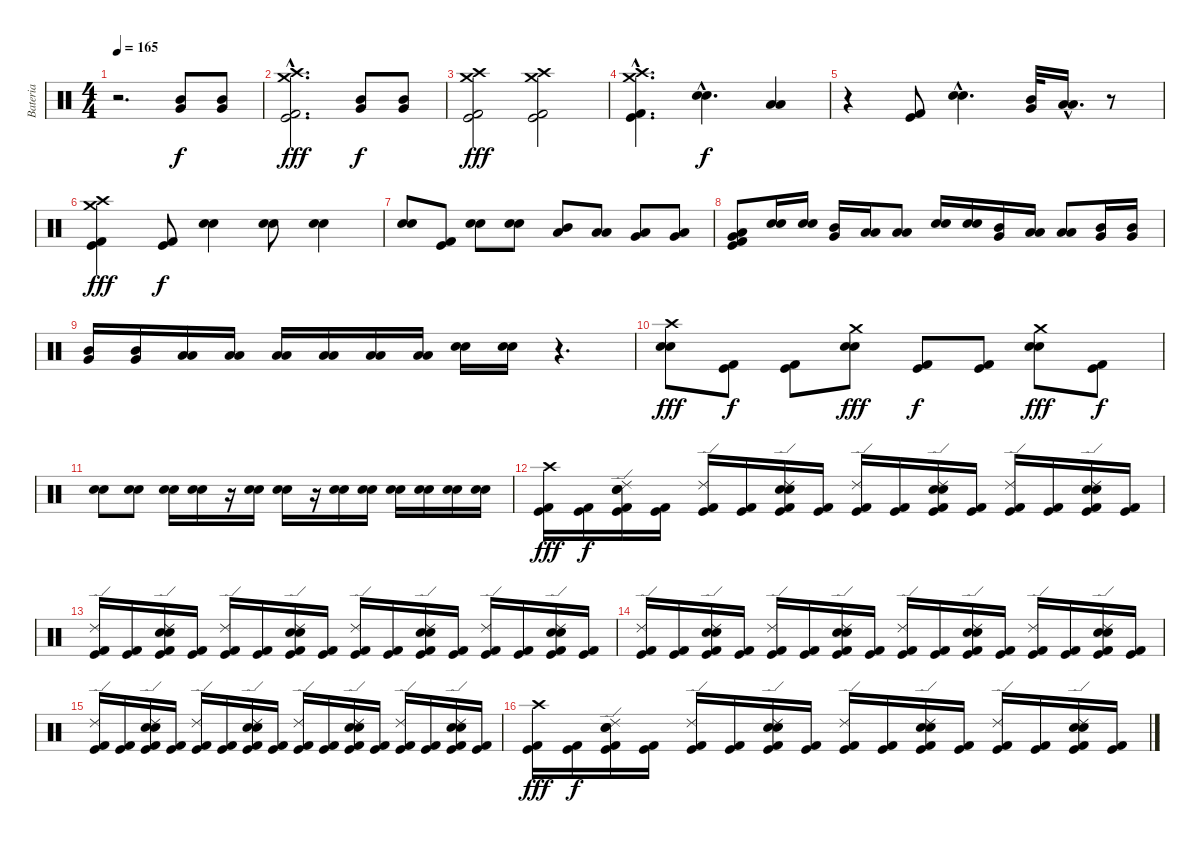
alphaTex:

\track ("Bateria" "Bateria") {instrument percussion}
\staff {score}
\articulation defaults
\ts (4 4)
\tempo 165
\clef neutral
\ks c
r.2{d dy fff} ("Mid Tom (hit)" "Very Low Tom (hit)").8{dy f} ("Mid Tom (hit)" "Very Low Tom (hit)").8 |
("Crash high (hit)"{hac} "Crash medium (hit)"{hac} "Kick (hit) 2"{hac} "Kick (hit)"{hac}).2{d dy fff} ("Mid Tom (hit)" "Very Low Tom (hit)").8{dy f} ("Mid Tom (hit)" "Very Low Tom (hit)").8 |
("Crash high (hit)" "Crash medium (hit)" "Kick (hit) 2" "Kick (hit)").2{dy fff} ("Crash high (hit)" "Crash medium (hit)" "Kick (hit) 2" "Kick (hit)").2 |
("Crash high (hit)"{hac} "Crash medium (hit)"{hac} "Kick (hit) 2"{hac} "Kick (hit)"{hac}).4{d} ("Electric Snare (hit)"{hac} "Snare (hit) 2"{hac}).4{d dy f} ("Low Tom (hit)" "Low Floor Tom (hit)").4 |
r.4 ("Kick (hit) 2" "Kick (hit)").8 ("Snare (hit) 2"{hac} "Electric Snare (hit)"{hac}).4{d} ("Mid Tom (hit)" "Very Low Tom (hit)").32 ("Low Tom (hit)"{hac} "Low Floor Tom (hit)"{hac}).16{d} r.8 |
("Crash high (hit)" "Crash medium (hit)" "Kick (hit) 2" "Kick (hit)").4{dy fff} ("Kick (hit) 2" "Kick (hit)").8{dy f} ("Electric Snare (hit)" "Snare (hit) 2").4 ("Electric Snare (hit)" "Snare (hit) 2").8 ("Electric Snare (hit)" "Snare (hit) 2").4 |
("Electric Snare (hit)" "Snare (hit) 2").8 ("Kick (hit)" "Kick (hit) 2").8 ("Electric Snare (hit)" "Snare (hit) 2").8 ("Electric Snare (hit)" "Snare (hit) 2").8 ("Mid Tom (hit)" "Low Tom (hit)").8 ("Low Tom (hit)" "Low Floor Tom (hit)").8 ("Very Low Tom (hit)" "Low Floor Tom (hit)").8 ("Very Low Tom (hit)" "Low Floor Tom (hit)").8 |
("Low Tom (hit)" "Very Low Tom (hit)" "Kick (hit) 2" "Kick (hit)").8 ("Electric Snare (hit)" "Snare (hit) 2").16 ("Electric Snare (hit)" "Snare (hit) 2").16 ("Mid Tom (hit)" "Very Low Tom (hit)").16 ("Low Tom (hit)" "Low Floor Tom (hit)").16 ("Low Tom (hit)" "Low Floor Tom (hit)").8 ("Electric Snare (hit)" "Snare (hit) 2").16 ("Electric Snare (hit)" "Snare (hit) 2").16 ("Mid Tom (hit)" "Very Low Tom (hit)").16 ("Low Tom (hit)" "Low Floor Tom (hit)").16 ("Low Tom (hit)" "Low Floor Tom (hit)").8 ("Mid Tom (hit)" "Very Low Tom (hit)").16 ("Mid Tom (hit)" "Very Low Tom (hit)").16 |
("Mid Tom (hit)" "Very Low Tom (hit)").16 ("Mid Tom (hit)" "Very Low Tom (hit)").16 ("Low Tom (hit)" "Low Floor Tom (hit)").16 ("Low Tom (hit)" "Low Floor Tom (hit)").16 ("Low Tom (hit)" "Low Floor Tom (hit)").16 ("Low Tom (hit)" "Low Floor Tom (hit)").16 ("Low Tom (hit)" "Low Floor Tom (hit)").16 ("Low Tom (hit)" "Low Floor Tom (hit)").16 ("Electric Snare (hit)" "Snare (hit) 2").16 ("Electric Snare (hit)" "Snare (hit) 2").16 r.4{d} |
("Crash high (hit)" "Electric Snare (hit)" "Snare (hit) 2").8{dy fff} ("Kick (hit) 2" "Kick (hit)").8{dy f} ("Kick (hit) 2" "Kick (hit)").8 ("Crash medium (hit)" "Electric Snare (hit)" "Snare (hit) 2").8{dy fff} ("Kick (hit) 2" "Kick (hit)").8{dy f} ("Kick (hit) 2" "Kick (hit)").8 ("Crash medium (hit)" "Electric Snare (hit)" "Snare (hit) 2").8{dy fff} ("Kick (hit) 2" "Kick (hit)").8{dy f} |
("Electric Snare (hit)" "Snare (hit) 2").8 ("Electric Snare (hit)" "Snare (hit) 2").8 ("Electric Snare (hit)" "Snare (hit) 2").16 ("Electric Snare (hit)" "Snare (hit) 2").16 r.16 ("Electric Snare (hit)" "Snare (hit) 2").16 ("Electric Snare (hit)" "Snare (hit) 2").16 r.16 ("Electric Snare (hit)" "Snare (hit) 2").16 ("Electric Snare (hit)" "Snare (hit) 2").16 ("Electric Snare (hit)" "Snare (hit) 2").16 ("Electric Snare (hit)" "Snare (hit) 2").16 ("Electric Snare (hit)" "Snare (hit) 2").16 ("Electric Snare (hit)" "Snare (hit) 2").16 |
("Crash high (hit)" "Kick (hit) 2" "Kick (hit)").16{dy fff} ("Kick (hit) 2" "Kick (hit)").16{dy f} ("Ride (edge) 2" "Electric Snare (hit)" "Snare (hit) 2" "Kick (hit) 2" "Kick (hit)").16 ("Kick (hit) 2" "Kick (hit)").16 ("Ride (edge) 2" "Kick (hit) 2" "Kick (hit)").16 ("Kick (hit) 2" "Kick (hit)").16 ("Ride (edge) 2" "Electric Snare (hit)" "Snare (hit) 2" "Kick (hit) 2" "Kick (hit)").16 ("Kick (hit) 2" "Kick (hit)").16 ("Ride (edge) 2" "Kick (hit) 2" "Kick (hit)").16 ("Kick (hit) 2" "Kick (hit)").16 ("Ride (edge) 2" "Electric Snare (hit)" "Snare (hit) 2" "Kick (hit) 2" "Kick (hit)").16 ("Kick (hit) 2" "Kick (hit)").16 ("Ride (edge) 2" "Kick (hit) 2" "Kick (hit)").16 ("Kick (hit) 2" "Kick (hit)").16 ("Ride (edge) 2" "Electric Snare (hit)" "Snare (hit) 2" "Kick (hit) 2" "Kick (hit)").16 ("Kick (hit) 2" "Kick (hit)").16 |
("Ride (edge) 2" "Kick (hit) 2" "Kick (hit)").16 ("Kick (hit) 2" "Kick (hit)").16 ("Ride (edge) 2" "Electric Snare (hit)" "Snare (hit) 2" "Kick (hit) 2" "Kick (hit)").16 ("Kick (hit) 2" "Kick (hit)").16 ("Ride (edge) 2" "Kick (hit) 2" "Kick (hit)").16 ("Kick (hit) 2" "Kick (hit)").16 ("Ride (edge) 2" "Electric Snare (hit)" "Snare (hit) 2" "Kick (hit) 2" "Kick (hit)").16 ("Kick (hit) 2" "Kick (hit)").16 ("Ride (edge) 2" "Kick (hit) 2" "Kick (hit)").16 ("Kick (hit) 2" "Kick (hit)").16 ("Ride (edge) 2" "Electric Snare (hit)" "Snare (hit) 2" "Kick (hit) 2" "Kick (hit)").16 ("Kick (hit) 2" "Kick (hit)").16 ("Ride (edge) 2" "Kick (hit) 2" "Kick (hit)").16 ("Kick (hit) 2" "Kick (hit)").16 ("Ride (edge) 2" "Electric Snare (hit)" "Snare (hit) 2" "Kick (hit) 2" "Kick (hit)").16 ("Kick (hit) 2" "Kick (hit)").16 |
("Ride (edge) 2" "Kick (hit) 2" "Kick (hit)").16 ("Kick (hit) 2" "Kick (hit)").16 ("Ride (edge) 2" "Electric Snare (hit)" "Snare (hit) 2" "Kick (hit) 2" "Kick (hit)").16 ("Kick (hit) 2" "Kick (hit)").16 ("Ride (edge) 2" "Kick (hit) 2" "Kick (hit)").16 ("Kick (hit) 2" "Kick (hit)").16 ("Ride (edge) 2" "Electric Snare (hit)" "Snare (hit) 2" "Kick (hit) 2" "Kick (hit)").16 ("Kick (hit) 2" "Kick (hit)").16 ("Ride (edge) 2" "Kick (hit) 2" "Kick (hit)").16 ("Kick (hit) 2" "Kick (hit)").16 ("Ride (edge) 2" "Electric Snare (hit)" "Snare (hit) 2" "Kick (hit) 2" "Kick (hit)").16 ("Kick (hit) 2" "Kick (hit)").16 ("Ride (edge) 2" "Kick (hit) 2" "Kick (hit)").16 ("Kick (hit) 2" "Kick (hit)").16 ("Ride (edge) 2" "Electric Snare (hit)" "Snare (hit) 2" "Kick (hit) 2" "Kick (hit)").16 ("Kick (hit) 2" "Kick (hit)").16 |
("Ride (edge) 2" "Kick (hit) 2" "Kick (hit)").16 ("Kick (hit) 2" "Kick (hit)").16 ("Ride (edge) 2" "Electric Snare (hit)" "Snare (hit) 2" "Kick (hit) 2" "Kick (hit)").16 ("Kick (hit) 2" "Kick (hit)").16 ("Ride (edge) 2" "Kick (hit) 2" "Kick (hit)").16 ("Kick (hit) 2" "Kick (hit)").16 ("Ride (edge) 2" "Electric Snare (hit)" "Snare (hit) 2" "Kick (hit) 2" "Kick (hit)").16 ("Kick (hit) 2" "Kick (hit)").16 ("Ride (edge) 2" "Kick (hit) 2" "Kick (hit)").16 ("Kick (hit) 2" "Kick (hit)").16 ("Ride (edge) 2" "Electric Snare (hit)" "Snare (hit) 2" "Kick (hit) 2" "Kick (hit)").16 ("Kick (hit) 2" "Kick (hit)").16 ("Ride (edge) 2" "Kick (hit) 2" "Kick (hit)").16 ("Kick (hit) 2" "Kick (hit)").16 ("Ride (edge) 2" "Electric Snare (hit)" "Snare (hit) 2" "Kick (hit) 2" "Kick (hit)").16 ("Kick (hit) 2" "Kick (hit)").16 |
("Crash high (hit)" "Kick (hit) 2" "Kick (hit)").16{dy fff} ("Kick (hit) 2" "Kick (hit)").16{dy f} ("Ride (edge) 2" "Electric Snare (hit)" "Snare (hit) 2" "Kick (hit) 2" "Kick (hit)").16 ("Kick (hit) 2" "Kick (hit)").16 ("Ride (edge) 2" "Kick (hit) 2" "Kick (hit)").16 ("Kick (hit) 2" "Kick (hit)").16 ("Ride (edge) 2" "Electric Snare (hit)" "Snare (hit) 2" "Kick (hit) 2" "Kick (hit)").16 ("Kick (hit) 2" "Kick (hit)").16 ("Ride (edge) 2" "Kick (hit) 2" "Kick (hit)").16 ("Kick (hit) 2" "Kick (hit)").16 ("Ride (edge) 2" "Electric Snare (hit)" "Snare (hit) 2" "Kick (hit) 2" "Kick (hit)").16 ("Kick (hit) 2" "Kick (hit)").16 ("Ride (edge) 2" "Kick (hit) 2" "Kick (hit)").16 ("Kick (hit) 2" "Kick (hit)").16 ("Ride (edge) 2" "Electric Snare (hit)" "Snare (hit) 2" "Kick (hit) 2" "Kick (hit)").16 ("Kick (hit) 2" "Kick (hit)").16
